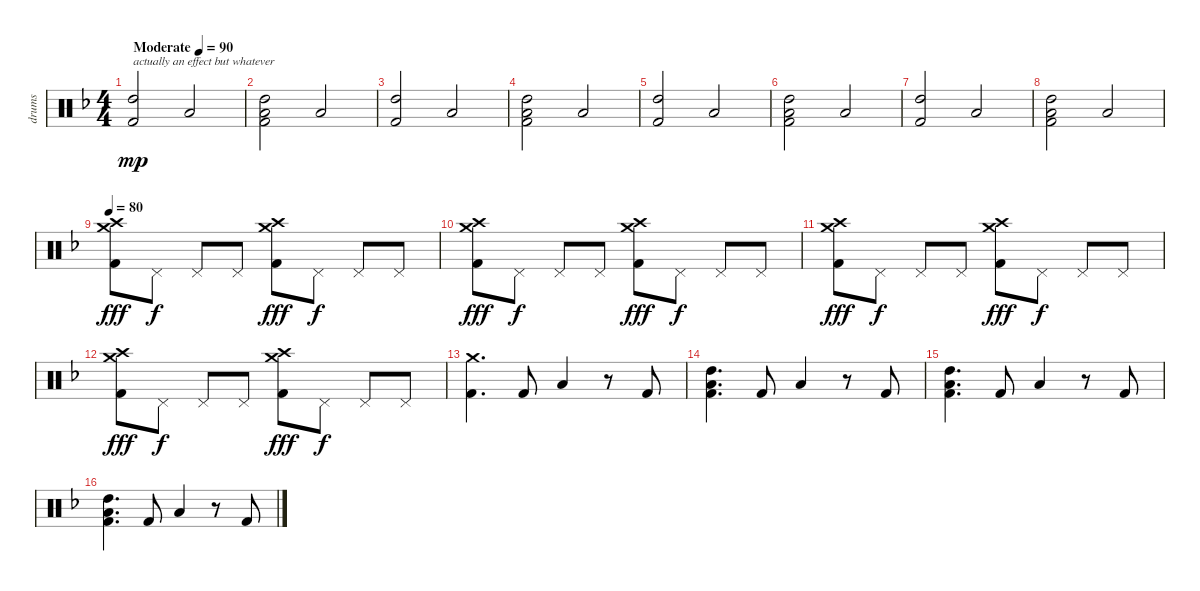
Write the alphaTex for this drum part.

\track ("drums" "drums") {instrument percussion}
\staff {score}
\articulation defaults
\ts (4 4)
\tempo (90 "Moderate")
\clef neutral
\ks dminor
("High Tom (hit)" "Kick (hit) 2").2{txt "actually an effect but whatever" dy mp} "Low Floor Tom (hit)".2 |
("High Tom (hit)" "Low Tom (hit)" "Kick (hit) 2").2 "Low Floor Tom (hit)".2 |
("High Tom (hit)" "Kick (hit) 2").2 "Low Floor Tom (hit)".2 |
("High Tom (hit)" "Low Tom (hit)" "Kick (hit) 2").2 "Low Floor Tom (hit)".2 |
("High Tom (hit)" "Kick (hit) 2").2 "Low Floor Tom (hit)".2 |
("High Tom (hit)" "Low Tom (hit)" "Kick (hit) 2").2 "Low Floor Tom (hit)".2 |
("High Tom (hit)" "Kick (hit) 2").2 "Low Floor Tom (hit)".2 |
("High Tom (hit)" "Low Tom (hit)" "Kick (hit) 2").2 "Low Floor Tom (hit)".2 |
\tempo 80
("Crash medium (hit)" "Crash high (hit)" "Kick (hit) 2").8{dy fff} "Pedal Hi-Hat (hit)".8{dy f} "Pedal Hi-Hat (hit)".8 "Pedal Hi-Hat (hit)".8 ("Crash medium (hit)" "Crash high (hit)" "Kick (hit) 2").8{dy fff} "Pedal Hi-Hat (hit)".8{dy f} "Pedal Hi-Hat (hit)".8 "Pedal Hi-Hat (hit)".8 |
("Crash medium (hit)" "Crash high (hit)" "Kick (hit) 2").8{dy fff} "Pedal Hi-Hat (hit)".8{dy f} "Pedal Hi-Hat (hit)".8 "Pedal Hi-Hat (hit)".8 ("Crash medium (hit)" "Crash high (hit)" "Kick (hit) 2").8{dy fff} "Pedal Hi-Hat (hit)".8{dy f} "Pedal Hi-Hat (hit)".8 "Pedal Hi-Hat (hit)".8 |
("Crash medium (hit)" "Crash high (hit)" "Kick (hit) 2").8{dy fff} "Pedal Hi-Hat (hit)".8{dy f} "Pedal Hi-Hat (hit)".8 "Pedal Hi-Hat (hit)".8 ("Crash medium (hit)" "Crash high (hit)" "Kick (hit) 2").8{dy fff} "Pedal Hi-Hat (hit)".8{dy f} "Pedal Hi-Hat (hit)".8 "Pedal Hi-Hat (hit)".8 |
("Crash medium (hit)" "Crash high (hit)" "Kick (hit) 2").8{dy fff} "Pedal Hi-Hat (hit)".8{dy f} "Pedal Hi-Hat (hit)".8 "Pedal Hi-Hat (hit)".8 ("Crash medium (hit)" "Crash high (hit)" "Kick (hit) 2").8{dy fff} "Pedal Hi-Hat (hit)".8{dy f} "Pedal Hi-Hat (hit)".8 "Pedal Hi-Hat (hit)".8 |
("Crash medium (hit)" "Kick (hit) 2").4{d} "Kick (hit) 2".8 "Low Floor Tom (hit)".4 r.8 "Kick (hit) 2".8 |
("High Tom (hit)" "Low Tom (hit)" "Kick (hit) 2").4{d} "Kick (hit) 2".8 "Low Floor Tom (hit)".4 r.8 "Kick (hit) 2".8 |
("High Tom (hit)" "Low Tom (hit)" "Kick (hit) 2").4{d} "Kick (hit) 2".8 "Low Floor Tom (hit)".4 r.8 "Kick (hit) 2".8 |
("High Tom (hit)" "Low Tom (hit)" "Kick (hit) 2").4{d} "Kick (hit) 2".8 "Low Floor Tom (hit)".4 r.8 "Kick (hit) 2".8
